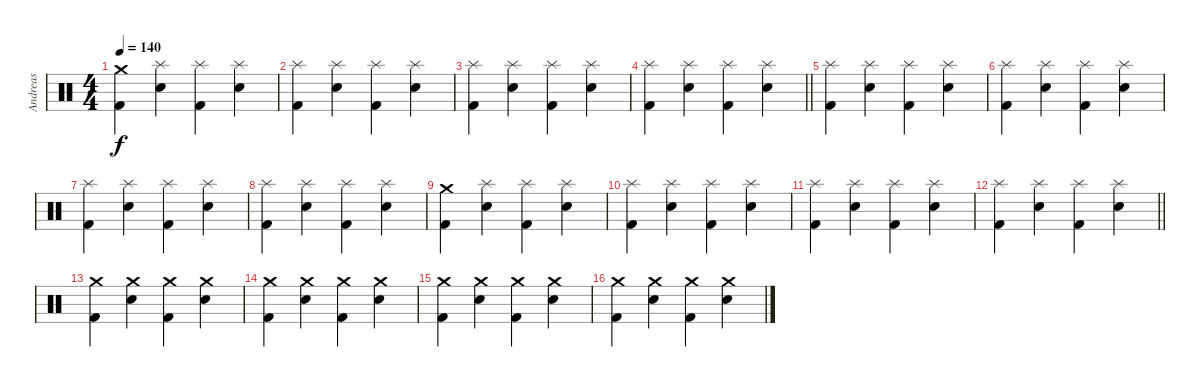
\track ("Andreas" "Andreas") {instrument percussion}
\staff {score}
\articulation defaults
\ts (4 4)
\tempo 140
\clef neutral
\ks c
("Crash medium (hit)" "Kick (hit) 2").4{dy f} ("Splash (hit)" "Electric Snare (hit)").4 ("Splash (hit)" "Kick (hit) 2").4 ("Splash (hit)" "Electric Snare (hit)").4 |
("Splash (hit)" "Kick (hit) 2").4 ("Splash (hit)" "Electric Snare (hit)").4 ("Splash (hit)" "Kick (hit) 2").4 ("Splash (hit)" "Electric Snare (hit)").4 |
("Splash (hit)" "Kick (hit) 2").4 ("Splash (hit)" "Electric Snare (hit)").4 ("Splash (hit)" "Kick (hit) 2").4 ("Splash (hit)" "Electric Snare (hit)").4 |
\barLineRight lightlight
("Splash (hit)" "Kick (hit) 2").4 ("Splash (hit)" "Electric Snare (hit)").4 ("Splash (hit)" "Kick (hit) 2").4 ("Splash (hit)" "Electric Snare (hit)").4 |
\section ("" "")
("Splash (hit)" "Kick (hit) 2").4 ("Splash (hit)" "Electric Snare (hit)").4 ("Splash (hit)" "Kick (hit) 2").4 ("Splash (hit)" "Electric Snare (hit)").4 |
("Splash (hit)" "Kick (hit) 2").4 ("Splash (hit)" "Electric Snare (hit)").4 ("Splash (hit)" "Kick (hit) 2").4 ("Splash (hit)" "Electric Snare (hit)").4 |
("Splash (hit)" "Kick (hit) 2").4 ("Splash (hit)" "Electric Snare (hit)").4 ("Splash (hit)" "Kick (hit) 2").4 ("Splash (hit)" "Electric Snare (hit)").4 |
("Splash (hit)" "Kick (hit) 2").4 ("Splash (hit)" "Electric Snare (hit)").4 ("Splash (hit)" "Kick (hit) 2").4 ("Splash (hit)" "Electric Snare (hit)").4 |
("Crash medium (hit)" "Kick (hit) 2").4 ("Splash (hit)" "Electric Snare (hit)").4 ("Splash (hit)" "Kick (hit) 2").4 ("Splash (hit)" "Electric Snare (hit)").4 |
("Splash (hit)" "Kick (hit) 2").4 ("Splash (hit)" "Electric Snare (hit)").4 ("Splash (hit)" "Kick (hit) 2").4 ("Splash (hit)" "Electric Snare (hit)").4 |
("Splash (hit)" "Kick (hit) 2").4 ("Splash (hit)" "Electric Snare (hit)").4 ("Splash (hit)" "Kick (hit) 2").4 ("Splash (hit)" "Electric Snare (hit)").4 |
\barLineRight lightlight
("Splash (hit)" "Kick (hit) 2").4 ("Splash (hit)" "Electric Snare (hit)").4 ("Splash (hit)" "Kick (hit) 2").4 ("Splash (hit)" "Electric Snare (hit)").4 |
("Crash medium (hit)" "Kick (hit) 2").4 ("Crash medium (hit)" "Electric Snare (hit)").4 ("Crash medium (hit)" "Kick (hit) 2").4 ("Crash medium (hit)" "Electric Snare (hit)").4 |
("Crash medium (hit)" "Kick (hit) 2").4 ("Crash medium (hit)" "Electric Snare (hit)").4 ("Crash medium (hit)" "Kick (hit) 2").4 ("Crash medium (hit)" "Electric Snare (hit)").4 |
("Crash medium (hit)" "Kick (hit) 2").4 ("Crash medium (hit)" "Electric Snare (hit)").4 ("Crash medium (hit)" "Kick (hit) 2").4 ("Crash medium (hit)" "Electric Snare (hit)").4 |
("Crash medium (hit)" "Kick (hit) 2").4 ("Crash medium (hit)" "Electric Snare (hit)").4 ("Crash medium (hit)" "Kick (hit) 2").4 ("Crash medium (hit)" "Electric Snare (hit)").4
